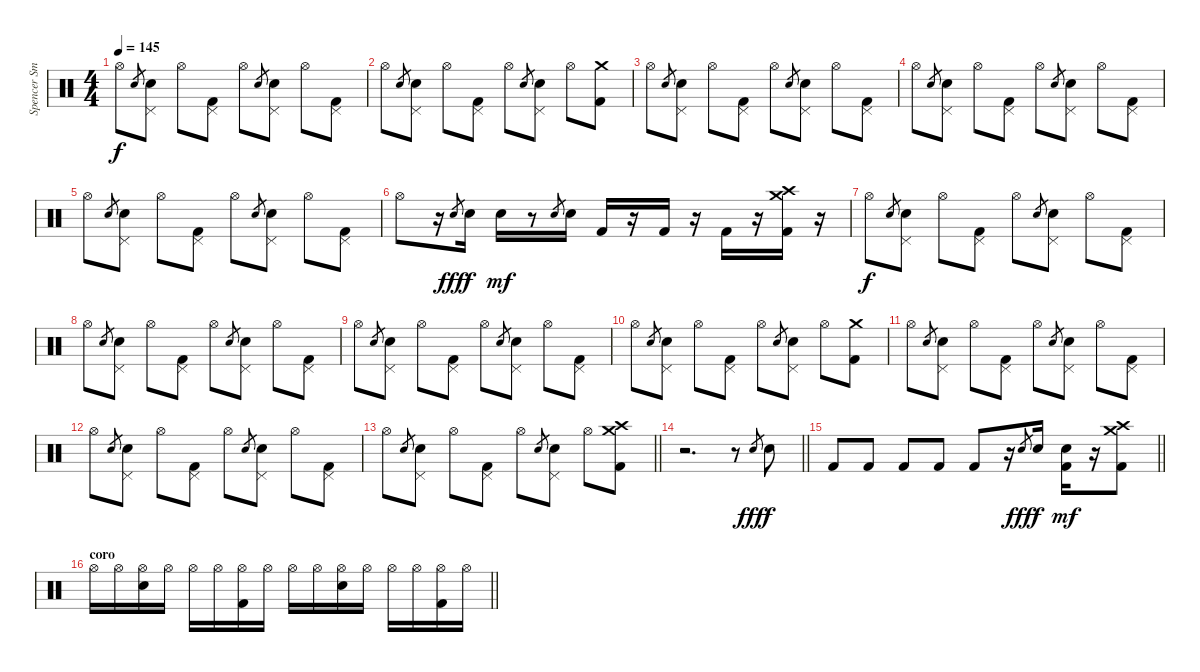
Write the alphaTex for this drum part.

\track ("Spencer Smith" "Spencer Sm") {instrument percussion}
\staff {score}
\articulation defaults
\ts (4 4)
\tempo 145
\clef neutral
\ks c "Hi-Hat (open)".8{dy f} "Electric Snare (hit)".8{gr}
("Pedal Hi-Hat (hit)" "Electric Snare (hit)").8 "Hi-Hat (open)".8 ("Pedal Hi-Hat (hit)" "Kick (hit) 2").8 "Hi-Hat (open)".8 "Electric Snare (hit)".8{gr} ("Pedal Hi-Hat (hit)" "Electric Snare (hit)").8 "Hi-Hat (open)".8 ("Pedal Hi-Hat (hit)" "Kick (hit) 2").8 |
"Hi-Hat (open)".8 "Electric Snare (hit)".8{gr} ("Pedal Hi-Hat (hit)" "Electric Snare (hit)").8 "Hi-Hat (open)".8 ("Pedal Hi-Hat (hit)" "Kick (hit) 2").8 "Hi-Hat (open)".8 "Electric Snare (hit)".8{gr} ("Pedal Hi-Hat (hit)" "Electric Snare (hit)").8 "Hi-Hat (open)".8 ("Crash medium (hit)" "Kick (hit) 2").8 |
"Hi-Hat (open)".8 "Electric Snare (hit)".8{gr} ("Pedal Hi-Hat (hit)" "Electric Snare (hit)").8 "Hi-Hat (open)".8 ("Pedal Hi-Hat (hit)" "Kick (hit) 2").8 "Hi-Hat (open)".8 "Electric Snare (hit)".8{gr} ("Pedal Hi-Hat (hit)" "Electric Snare (hit)").8 "Hi-Hat (open)".8 ("Pedal Hi-Hat (hit)" "Kick (hit) 2").8 |
"Hi-Hat (open)".8 "Electric Snare (hit)".8{gr} ("Pedal Hi-Hat (hit)" "Electric Snare (hit)").8 "Hi-Hat (open)".8 ("Pedal Hi-Hat (hit)" "Kick (hit) 2").8 "Hi-Hat (open)".8 "Electric Snare (hit)".8{gr} ("Pedal Hi-Hat (hit)" "Electric Snare (hit)").8 "Hi-Hat (open)".8 ("Pedal Hi-Hat (hit)" "Kick (hit) 2").8 |
"Hi-Hat (open)".8 "Electric Snare (hit)".8{gr} ("Pedal Hi-Hat (hit)" "Electric Snare (hit)").8 "Hi-Hat (open)".8 ("Pedal Hi-Hat (hit)" "Kick (hit) 2").8 "Hi-Hat (open)".8 "Electric Snare (hit)".8{gr} ("Pedal Hi-Hat (hit)" "Electric Snare (hit)").8 "Hi-Hat (open)".8 ("Pedal Hi-Hat (hit)" "Kick (hit) 2").8 |
"Hi-Hat (open)".8 r.16 "Electric Snare (hit)".8{gr dy fff} "Electric Snare (hit)".16{dy f} "Electric Snare (hit)".16{dy mf} r.8 "Electric Snare (hit)".8{gr} "Electric Snare (hit)".16 "Kick (hit) 2".16 r.16 "Kick (hit) 2".16 r.16 "Kick (hit) 2".16 r.16 ("Crash high (hit)" "Crash medium (hit)" "Kick (hit) 2").16 r.16 |
"Hi-Hat (open)".8{dy f} "Electric Snare (hit)".8{gr} ("Pedal Hi-Hat (hit)" "Electric Snare (hit)").8 "Hi-Hat (open)".8 ("Pedal Hi-Hat (hit)" "Kick (hit) 2").8 "Hi-Hat (open)".8 "Electric Snare (hit)".8{gr} ("Pedal Hi-Hat (hit)" "Electric Snare (hit)").8 "Hi-Hat (open)".8 ("Pedal Hi-Hat (hit)" "Kick (hit) 2").8 |
"Hi-Hat (open)".8 "Electric Snare (hit)".8{gr} ("Pedal Hi-Hat (hit)" "Electric Snare (hit)").8 "Hi-Hat (open)".8 ("Pedal Hi-Hat (hit)" "Kick (hit) 2").8 "Hi-Hat (open)".8 "Electric Snare (hit)".8{gr} ("Pedal Hi-Hat (hit)" "Electric Snare (hit)").8 "Hi-Hat (open)".8 ("Pedal Hi-Hat (hit)" "Kick (hit) 2").8 |
"Hi-Hat (open)".8 "Electric Snare (hit)".8{gr} ("Pedal Hi-Hat (hit)" "Electric Snare (hit)").8 "Hi-Hat (open)".8 ("Pedal Hi-Hat (hit)" "Kick (hit) 2").8 "Hi-Hat (open)".8 "Electric Snare (hit)".8{gr} ("Pedal Hi-Hat (hit)" "Electric Snare (hit)").8 "Hi-Hat (open)".8 ("Pedal Hi-Hat (hit)" "Kick (hit) 2").8 |
"Hi-Hat (open)".8 "Electric Snare (hit)".8{gr} ("Pedal Hi-Hat (hit)" "Electric Snare (hit)").8 "Hi-Hat (open)".8 ("Pedal Hi-Hat (hit)" "Kick (hit) 2").8 "Hi-Hat (open)".8 "Electric Snare (hit)".8{gr} ("Pedal Hi-Hat (hit)" "Electric Snare (hit)").8 "Hi-Hat (open)".8 ("Crash medium (hit)" "Kick (hit) 2").8 |
"Hi-Hat (open)".8 "Electric Snare (hit)".8{gr} ("Pedal Hi-Hat (hit)" "Electric Snare (hit)").8 "Hi-Hat (open)".8 ("Pedal Hi-Hat (hit)" "Kick (hit) 2").8 "Hi-Hat (open)".8 "Electric Snare (hit)".8{gr} ("Pedal Hi-Hat (hit)" "Electric Snare (hit)").8 "Hi-Hat (open)".8 ("Pedal Hi-Hat (hit)" "Kick (hit) 2").8 |
"Hi-Hat (open)".8 "Electric Snare (hit)".8{gr} ("Pedal Hi-Hat (hit)" "Electric Snare (hit)").8 "Hi-Hat (open)".8 ("Pedal Hi-Hat (hit)" "Kick (hit) 2").8 "Hi-Hat (open)".8 "Electric Snare (hit)".8{gr} ("Pedal Hi-Hat (hit)" "Electric Snare (hit)").8 "Hi-Hat (open)".8 ("Pedal Hi-Hat (hit)" "Kick (hit) 2").8 |
\barLineRight lightlight "Hi-Hat (open)".8 "Electric Snare (hit)".8{gr}
("Pedal Hi-Hat (hit)" "Electric Snare (hit)").8 "Hi-Hat (open)".8 ("Pedal Hi-Hat (hit)" "Kick (hit) 2").8 "Hi-Hat (open)".8 "Electric Snare (hit)".8{gr} ("Pedal Hi-Hat (hit)" "Electric Snare (hit)").8 "Hi-Hat (open)".8 ("Crash medium (hit)" "Crash high (hit)" "Kick (hit) 2").8 |
\barLineRight lightlight
r.2{d} r.8 "Electric Snare (hit)".8{gr dy fff} "Electric Snare (hit)".8{dy f} |
\barLineRight lightlight "Kick (hit) 2".8 "Kick (hit) 2".8 "Kick (hit) 2".8 "Kick (hit) 2".8 "Kick (hit) 2".8
r.16 "Electric Snare (hit)".8{gr dy fff} "Electric Snare (hit)".16{dy f} ("Kick (hit) 2" "Electric Snare (hit)").16{dy mf} r.16 ("Crash medium (hit)" "Crash high (hit)" "Kick (hit) 2").8 |
\section ("" "coro")
\barLineRight lightlight "Hi-Hat (open)".16 "Hi-Hat (open)".16
("Hi-Hat (open)" "Electric Snare (hit)").16 "Hi-Hat (open)".16 "Hi-Hat (open)".16 "Hi-Hat (open)".16 ("Hi-Hat (open)" "Kick (hit) 2").16 "Hi-Hat (open)".16 "Hi-Hat (open)".16 "Hi-Hat (open)".16 ("Hi-Hat (open)" "Electric Snare (hit)").16 "Hi-Hat (open)".16 "Hi-Hat (open)".16 "Hi-Hat (open)".16 ("Hi-Hat (open)" "Kick (hit) 2").16 "Hi-Hat (open)".16
